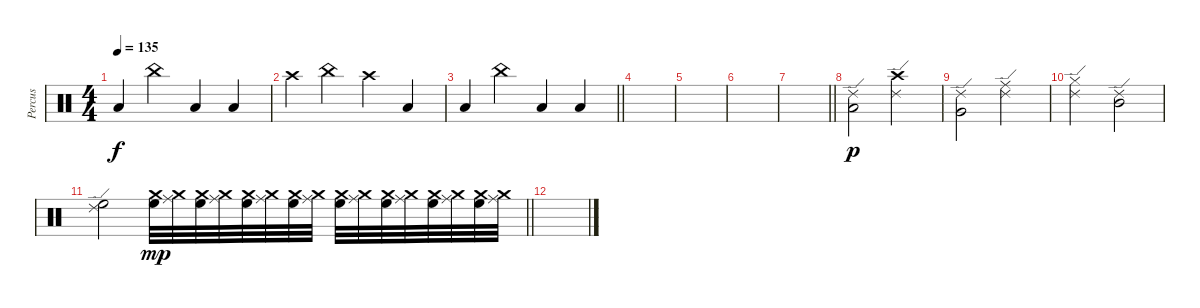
\track ("Percus" "Percus") {instrument percussion}
\staff {score}
\articulation defaults
\ts (4 4)
\tempo 135
\clef neutral
\ks c "Low Tom (hit)".4{dy f} "China (hit)".4 "Low Tom (hit)".4 "Low Floor Tom (hit)".4
|
"Crash high (hit)".4 "China (hit)".4 "Crash high (hit)".4 "Low Floor Tom (hit)".4 |
\barLineRight lightlight "Low Tom (hit)".4 "China (hit)".4 "Low Tom (hit)".4 "Low Floor Tom (hit)".4
|
\section ("" "")
|
|
|
\barLineRight lightlight
|
\section ("" "")
("Ride (edge) 2" "Low Floor Tom (hit)").2{dy p} ("Ride (edge) 2" "Crash high (hit)").2 |
("Ride (edge) 2" "Very Low Tom (hit)").2 ("Ride (edge) 2" "Ride (middle)").2 |
("Ride (edge) 2" "Hi-Hat (closed)").2 ("Ride (edge) 2" "Mid Tom (hit)").2 |
\barLineRight lightlight
("Ride (edge) 2" "High Floor Tom (hit)").2 ("Crash medium (hit)" "High Floor Tom (hit)").32{dy mp} ("Crash medium (hit)" "Ride (middle)").32 ("Crash medium (hit)" "High Floor Tom (hit)").32 ("Crash medium (hit)" "Ride (middle)").32 ("Crash medium (hit)" "High Floor Tom (hit)").32 ("Crash medium (hit)" "Ride (middle)").32 ("Crash medium (hit)" "High Floor Tom (hit)").32 ("Crash medium (hit)" "Ride (middle)").32 ("Crash medium (hit)" "High Floor Tom (hit)").32 ("Crash medium (hit)" "Ride (middle)").32 ("Crash medium (hit)" "High Floor Tom (hit)").32 ("Crash medium (hit)" "Ride (middle)").32 ("Crash medium (hit)" "High Floor Tom (hit)").32 ("Crash medium (hit)" "Ride (middle)").32 ("Crash medium (hit)" "High Floor Tom (hit)").32 ("Crash medium (hit)" "Ride (middle)").32 |
\section ("" "")
